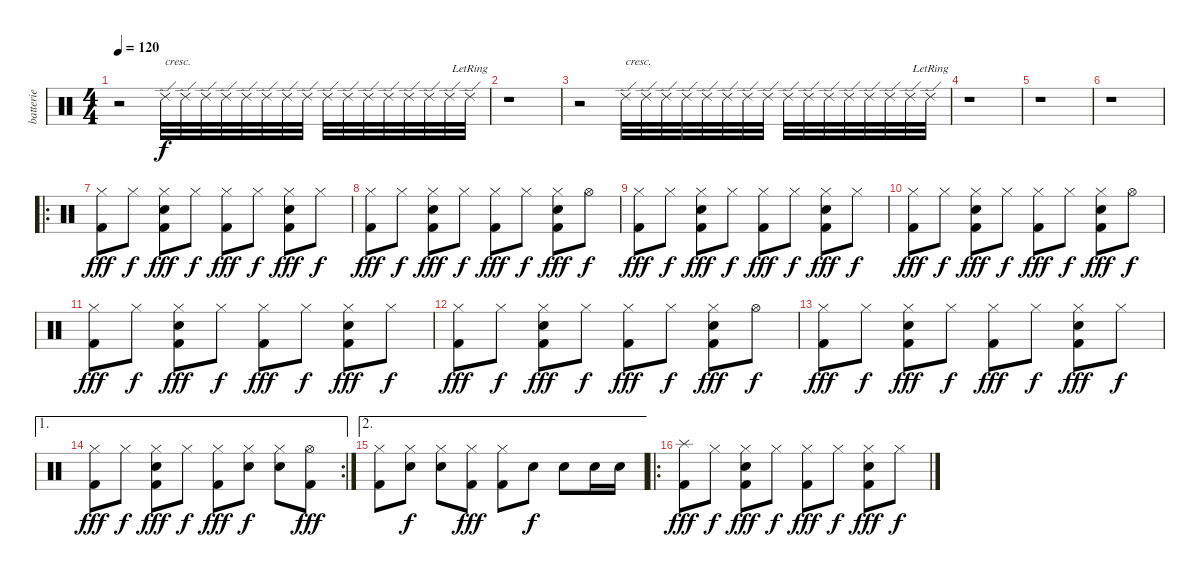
\track ("batterie" "batterie") {instrument percussion}
\staff {score}
\articulation defaults
\ts (4 4)
\tempo 120
\clef neutral
\ks c
r.2{dy f volume 10} "Ride (edge) 2".32{txt "cresc." volume 16} "Ride (edge) 2".32 "Ride (edge) 2".32 "Ride (edge) 2".32 "Ride (edge) 2".32 "Ride (edge) 2".32 "Ride (edge) 2".32 "Ride (edge) 2".32 "Ride (edge) 2".32 "Ride (edge) 2".32 "Ride (edge) 2".32 "Ride (edge) 2".32 "Ride (edge) 2".32 "Ride (edge) 2".32 "Ride (edge) 2".32 "Ride (edge) 2"{lr}.32 |
r.1 |
r.2{volume 10} "Ride (edge) 2".32{txt "cresc." volume 16} "Ride (edge) 2".32 "Ride (edge) 2".32 "Ride (edge) 2".32 "Ride (edge) 2".32 "Ride (edge) 2".32 "Ride (edge) 2".32 "Ride (edge) 2".32 "Ride (edge) 2".32 "Ride (edge) 2".32 "Ride (edge) 2".32 "Ride (edge) 2".32 "Ride (edge) 2".32 "Ride (edge) 2".32 "Ride (edge) 2".32 "Ride (edge) 2"{lr}.32 |
r.1 |
r.1 |
r.1 |
\ro
("Hi-Hat (closed)" "Kick (hit) 2").8{dy fff} "Hi-Hat (closed)".8{dy f} ("Hi-Hat (closed)" "Electric Snare (hit)" "Kick (hit) 2").8{dy fff} "Hi-Hat (closed)".8{dy f} ("Hi-Hat (closed)" "Kick (hit) 2").8{dy fff} "Hi-Hat (closed)".8{dy f} ("Hi-Hat (closed)" "Electric Snare (hit)" "Kick (hit) 2").8{dy fff} "Hi-Hat (closed)".8{dy f} |
("Hi-Hat (closed)" "Kick (hit) 2").8{dy fff} "Hi-Hat (closed)".8{dy f} ("Hi-Hat (closed)" "Electric Snare (hit)" "Kick (hit) 2").8{dy fff} "Hi-Hat (closed)".8{dy f} ("Hi-Hat (closed)" "Kick (hit) 2").8{dy fff} "Hi-Hat (closed)".8{dy f} ("Hi-Hat (closed)" "Electric Snare (hit)" "Kick (hit) 2").8{dy fff} "Hi-Hat (open)".8{dy f} |
("Hi-Hat (closed)" "Kick (hit) 2").8{dy fff} "Hi-Hat (closed)".8{dy f} ("Hi-Hat (closed)" "Electric Snare (hit)" "Kick (hit) 2").8{dy fff} "Hi-Hat (closed)".8{dy f} ("Hi-Hat (closed)" "Kick (hit) 2").8{dy fff} "Hi-Hat (closed)".8{dy f} ("Hi-Hat (closed)" "Electric Snare (hit)" "Kick (hit) 2").8{dy fff} "Hi-Hat (closed)".8{dy f} |
("Hi-Hat (closed)" "Kick (hit) 2").8{dy fff} "Hi-Hat (closed)".8{dy f} ("Hi-Hat (closed)" "Electric Snare (hit)" "Kick (hit) 2").8{dy fff} "Hi-Hat (closed)".8{dy f} ("Hi-Hat (closed)" "Kick (hit) 2").8{dy fff} "Hi-Hat (closed)".8{dy f} ("Hi-Hat (closed)" "Electric Snare (hit)" "Kick (hit) 2").8{dy fff} "Hi-Hat (open)".8{dy f} |
("Hi-Hat (closed)" "Kick (hit) 2").8{dy fff} "Hi-Hat (closed)".8{dy f} ("Hi-Hat (closed)" "Electric Snare (hit)" "Kick (hit) 2").8{dy fff} "Hi-Hat (closed)".8{dy f} ("Hi-Hat (closed)" "Kick (hit) 2").8{dy fff} "Hi-Hat (closed)".8{dy f} ("Hi-Hat (closed)" "Electric Snare (hit)" "Kick (hit) 2").8{dy fff} "Hi-Hat (closed)".8{dy f} |
("Hi-Hat (closed)" "Kick (hit) 2").8{dy fff} "Hi-Hat (closed)".8{dy f} ("Hi-Hat (closed)" "Electric Snare (hit)" "Kick (hit) 2").8{dy fff} "Hi-Hat (closed)".8{dy f} ("Hi-Hat (closed)" "Kick (hit) 2").8{dy fff} "Hi-Hat (closed)".8{dy f} ("Hi-Hat (closed)" "Electric Snare (hit)" "Kick (hit) 2").8{dy fff} "Hi-Hat (open)".8{dy f} |
("Hi-Hat (closed)" "Kick (hit) 2").8{dy fff} "Hi-Hat (closed)".8{dy f} ("Hi-Hat (closed)" "Electric Snare (hit)" "Kick (hit) 2").8{dy fff} "Hi-Hat (closed)".8{dy f} ("Hi-Hat (closed)" "Kick (hit) 2").8{dy fff} "Hi-Hat (closed)".8{dy f} ("Hi-Hat (closed)" "Electric Snare (hit)" "Kick (hit) 2").8{dy fff} "Hi-Hat (closed)".8{dy f} |
\ae 1
\rc 2
("Hi-Hat (closed)" "Kick (hit) 2").8{dy fff} "Hi-Hat (closed)".8{dy f} ("Hi-Hat (closed)" "Electric Snare (hit)" "Kick (hit) 2").8{dy fff} "Hi-Hat (closed)".8{dy f} ("Hi-Hat (closed)" "Kick (hit) 2").8{dy fff} ("Hi-Hat (closed)" "Electric Snare (hit)").8{dy f} ("Hi-Hat (closed)" "Electric Snare (hit)").8 ("Hi-Hat (open)" "Kick (hit) 2").8{dy fff} |
\ae 2
("Hi-Hat (closed)" "Kick (hit) 2").8 ("Hi-Hat (closed)" "Electric Snare (hit)").8{dy f} ("Hi-Hat (closed)" "Electric Snare (hit)").8 ("Hi-Hat (closed)" "Kick (hit) 2").8{dy fff} ("Hi-Hat (closed)" "Kick (hit) 2").8 "Electric Snare (hit)".8{dy f} "Electric Snare (hit)".8 "Electric Snare (hit)".16 "Electric Snare (hit)".16 |
\ro
("Splash (hit)" "Kick (hit) 2").8{dy fff} "Hi-Hat (closed)".8{dy f} ("Hi-Hat (closed)" "Electric Snare (hit)" "Kick (hit) 2").8{dy fff} "Hi-Hat (closed)".8{dy f} ("Hi-Hat (closed)" "Kick (hit) 2").8{dy fff} "Hi-Hat (closed)".8{dy f} ("Hi-Hat (closed)" "Electric Snare (hit)" "Kick (hit) 2").8{dy fff} "Hi-Hat (closed)".8{dy f}
